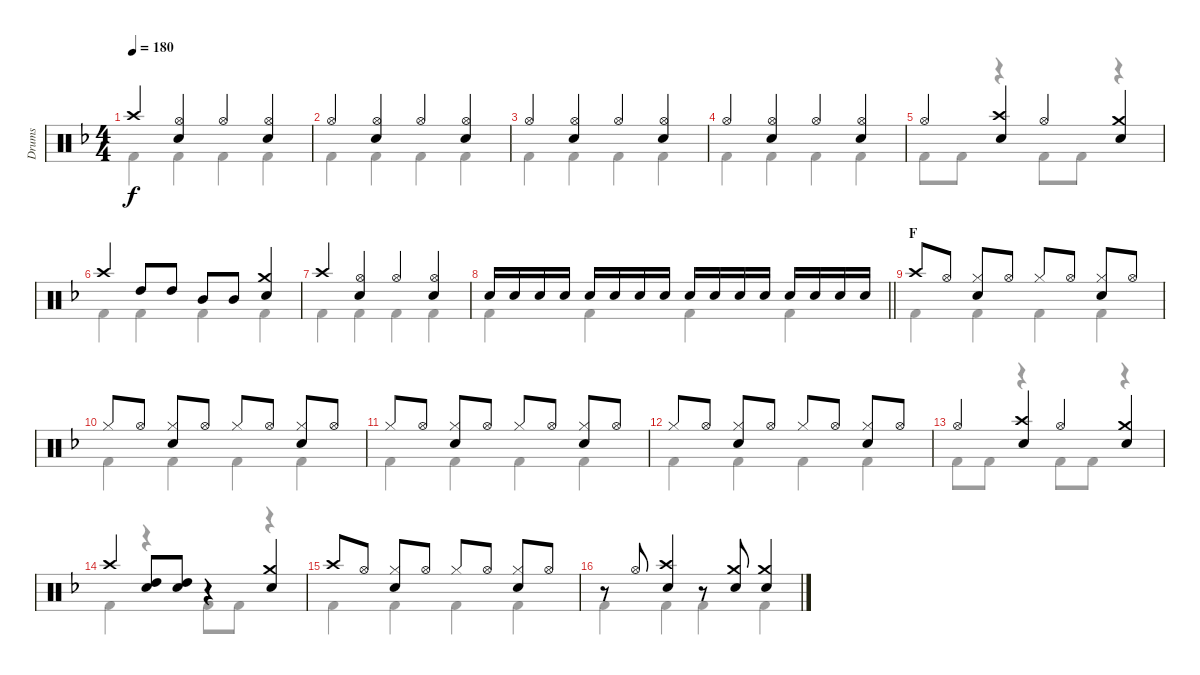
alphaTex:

\track ("Drums" "Drums") {instrument percussion}
\staff {score}
\articulation defaults
\voice
\ts (4 4)
\tempo 180
\clef neutral
\ks f "Crash high (hit)".4{dy f}
("Hi-Hat (open)" "Snare (hit) 2").4 "Hi-Hat (open)".4 ("Hi-Hat (open)" "Snare (hit) 2").4 |
"Hi-Hat (open)".4 ("Hi-Hat (open)" "Snare (hit) 2").4 "Hi-Hat (open)".4 ("Hi-Hat (open)" "Snare (hit) 2").4 |
"Hi-Hat (open)".4 ("Hi-Hat (open)" "Snare (hit) 2").4 "Hi-Hat (open)".4 ("Hi-Hat (open)" "Snare (hit) 2").4 |
"Hi-Hat (open)".4 ("Hi-Hat (open)" "Snare (hit) 2").4 "Hi-Hat (open)".4 ("Hi-Hat (open)" "Snare (hit) 2").4 |
"Hi-Hat (open)".4 ("Crash high (hit)" "Snare (hit) 2").4 "Hi-Hat (open)".4 ("Crash medium (hit)" "Snare (hit) 2").4 |
"Crash high (hit)".4 "High Tom (hit)".8 "High Tom (hit)".8 "Mid Tom (hit)".8 "Mid Tom (hit)".8 ("Crash medium (hit)" "Snare (hit) 2").4 |
"Crash high (hit)".4 ("Hi-Hat (open)" "Snare (hit) 2").4 "Hi-Hat (open)".4 ("Hi-Hat (open)" "Snare (hit) 2").4 |
\barLineRight lightlight "Snare (hit) 2".16 "Snare (hit) 2".16 "Snare (hit) 2".16 "Snare (hit) 2".16 "Snare (hit) 2".16 "Snare (hit) 2".16 "Snare (hit) 2".16 "Snare (hit) 2".16 "Snare (hit) 2".16 "Snare (hit) 2".16 "Snare (hit) 2".16 "Snare (hit) 2".16 "Snare (hit) 2".16 "Snare (hit) 2".16 "Snare (hit) 2".16 "Snare (hit) 2".16
|
\section ("" "F")
"Crash high (hit)".8 "Hi-Hat (open)".8 ("Hi-Hat (closed)" "Snare (hit) 2").8 "Hi-Hat (open)".8 "Hi-Hat (closed)".8 "Hi-Hat (open)".8 ("Hi-Hat (closed)" "Snare (hit) 2").8 "Hi-Hat (open)".8 |
"Hi-Hat (closed)".8 "Hi-Hat (open)".8 ("Hi-Hat (closed)" "Snare (hit) 2").8 "Hi-Hat (open)".8 "Hi-Hat (closed)".8 "Hi-Hat (open)".8 ("Hi-Hat (closed)" "Snare (hit) 2").8 "Hi-Hat (open)".8 |
"Hi-Hat (closed)".8 "Hi-Hat (open)".8 ("Hi-Hat (closed)" "Snare (hit) 2").8 "Hi-Hat (open)".8 "Hi-Hat (closed)".8 "Hi-Hat (open)".8 ("Hi-Hat (closed)" "Snare (hit) 2").8 "Hi-Hat (open)".8 |
"Hi-Hat (closed)".8 "Hi-Hat (open)".8 ("Hi-Hat (closed)" "Snare (hit) 2").8 "Hi-Hat (open)".8 "Hi-Hat (closed)".8 "Hi-Hat (open)".8 ("Hi-Hat (closed)" "Snare (hit) 2").8 "Hi-Hat (open)".8 |
"Hi-Hat (open)".4 ("Crash high (hit)" "Snare (hit) 2").4 "Hi-Hat (open)".4 ("Crash medium (hit)" "Snare (hit) 2").4 |
"Crash high (hit)".4 ("High Tom (hit)" "Snare (hit) 2").8 ("High Tom (hit)" "Snare (hit) 2").8 r.4 ("Crash medium (hit)" "Snare (hit) 2").4 |
"Crash high (hit)".8 "Hi-Hat (open)".8 ("Hi-Hat (closed)" "Snare (hit) 2").8 "Hi-Hat (open)".8 "Hi-Hat (closed)".8 "Hi-Hat (open)".8 ("Hi-Hat (closed)" "Snare (hit) 2").8 "Hi-Hat (open)".8 |
r.8 "Hi-Hat (open)".8 ("Crash high (hit)" "Snare (hit) 2").4 r.8 ("Crash medium (hit)" "Snare (hit) 2").8 ("Crash medium (hit)" "Snare (hit) 2").4
\voice
\clef neutral
\ottava regular
\simile none
\ks f "Kick (hit) 2".4{dy f} "Kick (hit) 2".4 "Kick (hit) 2".4 "Kick (hit) 2".4
|
"Kick (hit) 2".4 "Kick (hit) 2".4 "Kick (hit) 2".4 "Kick (hit) 2".4 |
"Kick (hit) 2".4 "Kick (hit) 2".4 "Kick (hit) 2".4 "Kick (hit) 2".4 |
"Kick (hit) 2".4 "Kick (hit) 2".4 "Kick (hit) 2".4 "Kick (hit) 2".4 |
"Kick (hit) 2".8 "Kick (hit) 2".8 r.4 "Kick (hit) 2".8 "Kick (hit) 2".8 r.4 |
"Kick (hit) 2".4 "Kick (hit) 2".4 "Kick (hit) 2".4 "Kick (hit) 2".4 |
"Kick (hit) 2".4 "Kick (hit) 2".4 "Kick (hit) 2".4 "Kick (hit) 2".4 |
\barLineRight lightlight "Kick (hit) 2".4 "Kick (hit) 2".4 "Kick (hit) 2".4 "Kick (hit) 2".4
|
"Kick (hit) 2".4 "Kick (hit) 2".4 "Kick (hit) 2".4 "Kick (hit) 2".4 |
"Kick (hit) 2".4 "Kick (hit) 2".4 "Kick (hit) 2".4 "Kick (hit) 2".4 |
"Kick (hit) 2".4 "Kick (hit) 2".4 "Kick (hit) 2".4 "Kick (hit) 2".4 |
"Kick (hit) 2".4 "Kick (hit) 2".4 "Kick (hit) 2".4 "Kick (hit) 2".4 |
"Kick (hit) 2".8 "Kick (hit) 2".8 r.4 "Kick (hit) 2".8 "Kick (hit) 2".8 r.4 |
"Kick (hit) 2".4 r.4 "Kick (hit) 2".8 "Kick (hit) 2".8 r.4 |
"Kick (hit) 2".4 "Kick (hit) 2".4 "Kick (hit) 2".4 "Kick (hit) 2".4 |
"Kick (hit) 2".4 "Kick (hit) 2".4 "Kick (hit) 2".4 "Kick (hit) 2".4
